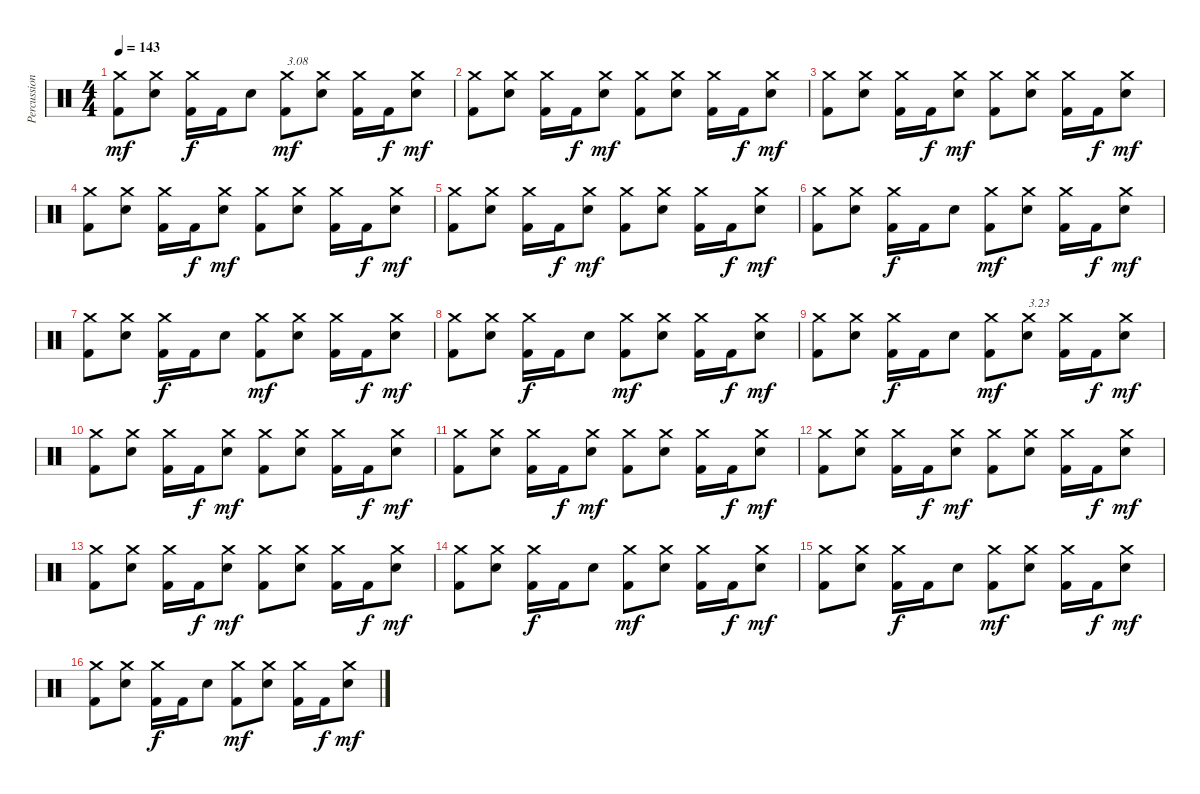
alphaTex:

\track ("Percussions" "Percussion") {instrument percussion}
\staff {score}
\articulation defaults
\ts (4 4)
\tempo 143
\clef neutral
\ks c
("Kick (hit) 2" "Crash medium (hit)").8{dy mf} ("Electric Snare (hit)" "Crash medium (hit)").8 ("Kick (hit) 2" "Crash medium (hit)").16{dy f} "Kick (hit) 2".16 "Electric Snare (hit)".8 ("Kick (hit) 2" "Crash medium (hit)").8{txt "3.08" dy mf} ("Electric Snare (hit)" "Crash medium (hit)").8 ("Kick (hit) 2" "Crash medium (hit)").16 "Kick (hit) 2".16{dy f} ("Electric Snare (hit)" "Crash medium (hit)").8{dy mf} |
("Kick (hit) 2" "Crash medium (hit)").8 ("Electric Snare (hit)" "Crash medium (hit)").8 ("Kick (hit) 2" "Crash medium (hit)").16 "Kick (hit) 2".16{dy f} ("Electric Snare (hit)" "Crash medium (hit)").8{dy mf} ("Kick (hit) 2" "Crash medium (hit)").8 ("Electric Snare (hit)" "Crash medium (hit)").8 ("Kick (hit) 2" "Crash medium (hit)").16 "Kick (hit) 2".16{dy f} ("Electric Snare (hit)" "Crash medium (hit)").8{dy mf} |
("Kick (hit) 2" "Crash medium (hit)").8 ("Electric Snare (hit)" "Crash medium (hit)").8 ("Kick (hit) 2" "Crash medium (hit)").16 "Kick (hit) 2".16{dy f} ("Electric Snare (hit)" "Crash medium (hit)").8{dy mf} ("Kick (hit) 2" "Crash medium (hit)").8 ("Electric Snare (hit)" "Crash medium (hit)").8 ("Kick (hit) 2" "Crash medium (hit)").16 "Kick (hit) 2".16{dy f} ("Electric Snare (hit)" "Crash medium (hit)").8{dy mf} |
("Kick (hit) 2" "Crash medium (hit)").8 ("Electric Snare (hit)" "Crash medium (hit)").8 ("Kick (hit) 2" "Crash medium (hit)").16 "Kick (hit) 2".16{dy f} ("Electric Snare (hit)" "Crash medium (hit)").8{dy mf} ("Kick (hit) 2" "Crash medium (hit)").8 ("Electric Snare (hit)" "Crash medium (hit)").8 ("Kick (hit) 2" "Crash medium (hit)").16 "Kick (hit) 2".16{dy f} ("Electric Snare (hit)" "Crash medium (hit)").8{dy mf} |
("Kick (hit) 2" "Crash medium (hit)").8 ("Electric Snare (hit)" "Crash medium (hit)").8 ("Kick (hit) 2" "Crash medium (hit)").16 "Kick (hit) 2".16{dy f} ("Electric Snare (hit)" "Crash medium (hit)").8{dy mf} ("Kick (hit) 2" "Crash medium (hit)").8 ("Electric Snare (hit)" "Crash medium (hit)").8 ("Kick (hit) 2" "Crash medium (hit)").16 "Kick (hit) 2".16{dy f} ("Electric Snare (hit)" "Crash medium (hit)").8{dy mf} |
("Kick (hit) 2" "Crash medium (hit)").8 ("Electric Snare (hit)" "Crash medium (hit)").8 ("Kick (hit) 2" "Crash medium (hit)").16{dy f} "Kick (hit) 2".16 "Electric Snare (hit)".8 ("Kick (hit) 2" "Crash medium (hit)").8{dy mf} ("Electric Snare (hit)" "Crash medium (hit)").8 ("Kick (hit) 2" "Crash medium (hit)").16 "Kick (hit) 2".16{dy f} ("Electric Snare (hit)" "Crash medium (hit)").8{dy mf} |
("Kick (hit) 2" "Crash medium (hit)").8 ("Electric Snare (hit)" "Crash medium (hit)").8 ("Kick (hit) 2" "Crash medium (hit)").16{dy f} "Kick (hit) 2".16 "Electric Snare (hit)".8 ("Kick (hit) 2" "Crash medium (hit)").8{dy mf} ("Electric Snare (hit)" "Crash medium (hit)").8 ("Kick (hit) 2" "Crash medium (hit)").16 "Kick (hit) 2".16{dy f} ("Electric Snare (hit)" "Crash medium (hit)").8{dy mf} |
("Kick (hit) 2" "Crash medium (hit)").8 ("Electric Snare (hit)" "Crash medium (hit)").8 ("Kick (hit) 2" "Crash medium (hit)").16{dy f} "Kick (hit) 2".16 "Electric Snare (hit)".8 ("Kick (hit) 2" "Crash medium (hit)").8{dy mf} ("Electric Snare (hit)" "Crash medium (hit)").8 ("Kick (hit) 2" "Crash medium (hit)").16 "Kick (hit) 2".16{dy f} ("Electric Snare (hit)" "Crash medium (hit)").8{dy mf} |
("Kick (hit) 2" "Crash medium (hit)").8 ("Electric Snare (hit)" "Crash medium (hit)").8 ("Kick (hit) 2" "Crash medium (hit)").16{dy f} "Kick (hit) 2".16 "Electric Snare (hit)".8 ("Kick (hit) 2" "Crash medium (hit)").8{dy mf} ("Electric Snare (hit)" "Crash medium (hit)").8{txt "3.23"} ("Kick (hit) 2" "Crash medium (hit)").16 "Kick (hit) 2".16{dy f} ("Electric Snare (hit)" "Crash medium (hit)").8{dy mf} |
("Kick (hit) 2" "Crash medium (hit)").8 ("Electric Snare (hit)" "Crash medium (hit)").8 ("Kick (hit) 2" "Crash medium (hit)").16 "Kick (hit) 2".16{dy f} ("Electric Snare (hit)" "Crash medium (hit)").8{dy mf} ("Kick (hit) 2" "Crash medium (hit)").8 ("Electric Snare (hit)" "Crash medium (hit)").8 ("Kick (hit) 2" "Crash medium (hit)").16 "Kick (hit) 2".16{dy f} ("Electric Snare (hit)" "Crash medium (hit)").8{dy mf} |
("Kick (hit) 2" "Crash medium (hit)").8 ("Electric Snare (hit)" "Crash medium (hit)").8 ("Kick (hit) 2" "Crash medium (hit)").16 "Kick (hit) 2".16{dy f} ("Electric Snare (hit)" "Crash medium (hit)").8{dy mf} ("Kick (hit) 2" "Crash medium (hit)").8 ("Electric Snare (hit)" "Crash medium (hit)").8 ("Kick (hit) 2" "Crash medium (hit)").16 "Kick (hit) 2".16{dy f} ("Electric Snare (hit)" "Crash medium (hit)").8{dy mf} |
("Kick (hit) 2" "Crash medium (hit)").8 ("Electric Snare (hit)" "Crash medium (hit)").8 ("Kick (hit) 2" "Crash medium (hit)").16 "Kick (hit) 2".16{dy f} ("Electric Snare (hit)" "Crash medium (hit)").8{dy mf} ("Kick (hit) 2" "Crash medium (hit)").8 ("Electric Snare (hit)" "Crash medium (hit)").8 ("Kick (hit) 2" "Crash medium (hit)").16 "Kick (hit) 2".16{dy f} ("Electric Snare (hit)" "Crash medium (hit)").8{dy mf} |
("Kick (hit) 2" "Crash medium (hit)").8 ("Electric Snare (hit)" "Crash medium (hit)").8 ("Kick (hit) 2" "Crash medium (hit)").16 "Kick (hit) 2".16{dy f} ("Electric Snare (hit)" "Crash medium (hit)").8{dy mf} ("Kick (hit) 2" "Crash medium (hit)").8 ("Electric Snare (hit)" "Crash medium (hit)").8 ("Kick (hit) 2" "Crash medium (hit)").16 "Kick (hit) 2".16{dy f} ("Electric Snare (hit)" "Crash medium (hit)").8{dy mf} |
("Kick (hit) 2" "Crash medium (hit)").8 ("Electric Snare (hit)" "Crash medium (hit)").8 ("Kick (hit) 2" "Crash medium (hit)").16{dy f} "Kick (hit) 2".16 "Electric Snare (hit)".8 ("Kick (hit) 2" "Crash medium (hit)").8{dy mf} ("Electric Snare (hit)" "Crash medium (hit)").8 ("Kick (hit) 2" "Crash medium (hit)").16 "Kick (hit) 2".16{dy f} ("Electric Snare (hit)" "Crash medium (hit)").8{dy mf} |
("Kick (hit) 2" "Crash medium (hit)").8 ("Electric Snare (hit)" "Crash medium (hit)").8 ("Kick (hit) 2" "Crash medium (hit)").16{dy f} "Kick (hit) 2".16 "Electric Snare (hit)".8 ("Kick (hit) 2" "Crash medium (hit)").8{dy mf} ("Electric Snare (hit)" "Crash medium (hit)").8 ("Kick (hit) 2" "Crash medium (hit)").16 "Kick (hit) 2".16{dy f} ("Electric Snare (hit)" "Crash medium (hit)").8{dy mf} |
("Kick (hit) 2" "Crash medium (hit)").8 ("Electric Snare (hit)" "Crash medium (hit)").8 ("Kick (hit) 2" "Crash medium (hit)").16{dy f} "Kick (hit) 2".16 "Electric Snare (hit)".8 ("Kick (hit) 2" "Crash medium (hit)").8{dy mf} ("Electric Snare (hit)" "Crash medium (hit)").8 ("Kick (hit) 2" "Crash medium (hit)").16 "Kick (hit) 2".16{dy f} ("Electric Snare (hit)" "Crash medium (hit)").8{dy mf}
